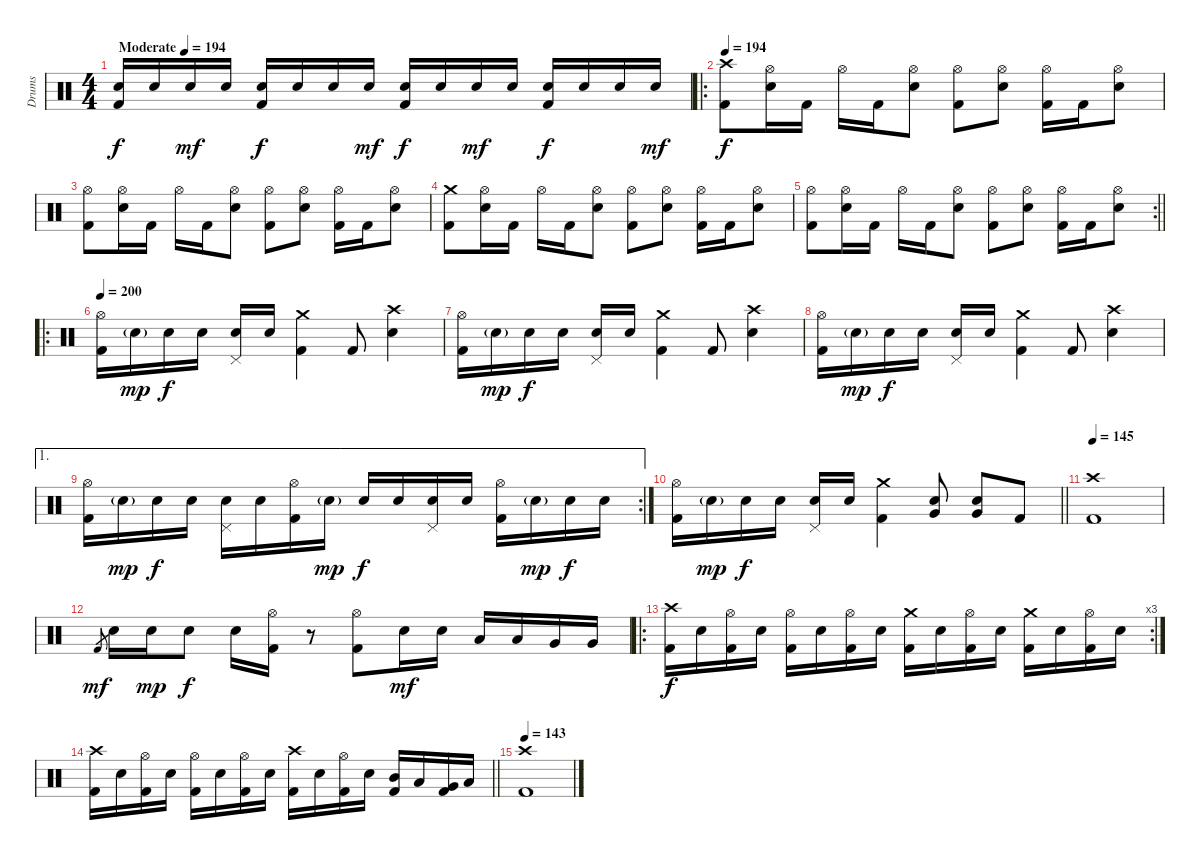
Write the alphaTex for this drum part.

\track ("Drums" "Drums") {instrument percussion}
\staff {score}
\articulation defaults
\ts (4 4)
\tempo (194 "Moderate")
\tempo 230
\tempo (194 "Moderate")
\clef neutral
\ks c
("Electric Snare (hit)" "Kick (hit) 2").16{dy f} "Electric Snare (hit)".16 "Electric Snare (hit)".16{dy mf} "Electric Snare (hit)".16 ("Electric Snare (hit)" "Kick (hit) 2").16{dy f} "Electric Snare (hit)".16 "Electric Snare (hit)".16 "Electric Snare (hit)".16{dy mf} ("Electric Snare (hit)" "Kick (hit) 2").16{dy f} "Electric Snare (hit)".16 "Electric Snare (hit)".16{dy mf} "Electric Snare (hit)".16 ("Electric Snare (hit)" "Kick (hit) 2").16{dy f} "Electric Snare (hit)".16 "Electric Snare (hit)".16 "Electric Snare (hit)".16{dy mf} |
\ro
\tempo 194
("Crash high (hit)" "Kick (hit) 2").8{dy f} ("Hi-Hat (open)" "Electric Snare (hit)").16 "Kick (hit) 2".16 "Hi-Hat (open)".16 "Kick (hit) 2".16 ("Hi-Hat (open)" "Electric Snare (hit)").8 ("Hi-Hat (open)" "Kick (hit) 2").8 ("Hi-Hat (open)" "Electric Snare (hit)").8 ("Hi-Hat (open)" "Kick (hit) 2").16 "Kick (hit) 2".16 ("Hi-Hat (open)" "Electric Snare (hit)").8 |
("Hi-Hat (open)" "Kick (hit) 2").8 ("Hi-Hat (open)" "Electric Snare (hit)").16 "Kick (hit) 2".16 "Hi-Hat (open)".16 "Kick (hit) 2".16 ("Hi-Hat (open)" "Electric Snare (hit)").8 ("Hi-Hat (open)" "Kick (hit) 2").8 ("Hi-Hat (open)" "Electric Snare (hit)").8 ("Hi-Hat (open)" "Kick (hit) 2").16 "Kick (hit) 2".16 ("Hi-Hat (open)" "Electric Snare (hit)").8 |
("Crash medium (hit)" "Kick (hit) 2").8 ("Hi-Hat (open)" "Electric Snare (hit)").16 "Kick (hit) 2".16 "Hi-Hat (open)".16 "Kick (hit) 2".16 ("Hi-Hat (open)" "Electric Snare (hit)").8 ("Hi-Hat (open)" "Kick (hit) 2").8 ("Hi-Hat (open)" "Electric Snare (hit)").8 ("Hi-Hat (open)" "Kick (hit) 2").16 "Kick (hit) 2".16 ("Hi-Hat (open)" "Electric Snare (hit)").8 |
\rc 2
\barLineRight lightlight
("Hi-Hat (open)" "Kick (hit) 2").8 ("Hi-Hat (open)" "Electric Snare (hit)").16 "Kick (hit) 2".16 "Hi-Hat (open)".16 "Kick (hit) 2".16 ("Hi-Hat (open)" "Electric Snare (hit)").8 ("Hi-Hat (open)" "Kick (hit) 2").8 ("Hi-Hat (open)" "Electric Snare (hit)").8 ("Hi-Hat (open)" "Kick (hit) 2").16 "Kick (hit) 2".16 ("Hi-Hat (open)" "Electric Snare (hit)").8 |
\ro
\section ("" "")
\tempo 200
("Hi-Hat (open)" "Kick (hit) 2").16 "Electric Snare (hit)"{g}.16{dy mp} "Electric Snare (hit)".16{dy f} "Electric Snare (hit)".16 ("Pedal Hi-Hat (hit)" "Electric Snare (hit)").16 "Electric Snare (hit)".16 ("Crash medium (hit)" "Kick (hit) 2").4 "Kick (hit) 2".8 ("Crash high (hit)" "Electric Snare (hit)").4 |
("Hi-Hat (open)" "Kick (hit) 2").16 "Electric Snare (hit)"{g}.16{dy mp} "Electric Snare (hit)".16{dy f} "Electric Snare (hit)".16 ("Pedal Hi-Hat (hit)" "Electric Snare (hit)").16 "Electric Snare (hit)".16 ("Crash medium (hit)" "Kick (hit) 2").4 "Kick (hit) 2".8 ("Crash high (hit)" "Electric Snare (hit)").4 |
("Hi-Hat (open)" "Kick (hit) 2").16 "Electric Snare (hit)"{g}.16{dy mp} "Electric Snare (hit)".16{dy f} "Electric Snare (hit)".16 ("Pedal Hi-Hat (hit)" "Electric Snare (hit)").16 "Electric Snare (hit)".16 ("Crash medium (hit)" "Kick (hit) 2").4 "Kick (hit) 2".8 ("Crash high (hit)" "Electric Snare (hit)").4 |
\ae 1
\rc 2
("Hi-Hat (open)" "Kick (hit) 2").16 "Electric Snare (hit)"{g}.16{dy mp} "Electric Snare (hit)".16{dy f} "Electric Snare (hit)".16 ("Pedal Hi-Hat (hit)" "Electric Snare (hit)").16 "Electric Snare (hit)".16 ("Hi-Hat (open)" "Kick (hit) 2").16 "Electric Snare (hit)"{g}.16{dy mp} "Electric Snare (hit)".16{dy f} "Electric Snare (hit)".16 ("Pedal Hi-Hat (hit)" "Electric Snare (hit)").16 "Electric Snare (hit)".16 ("Hi-Hat (open)" "Kick (hit) 2").16 "Electric Snare (hit)"{g}.16{dy mp} "Electric Snare (hit)".16{dy f} "Electric Snare (hit)".16 |
\barLineRight lightlight
("Hi-Hat (open)" "Kick (hit) 2").16 "Electric Snare (hit)"{g}.16{dy mp} "Electric Snare (hit)".16{dy f} "Electric Snare (hit)".16 ("Pedal Hi-Hat (hit)" "Electric Snare (hit)").16 "Electric Snare (hit)".16 ("Crash medium (hit)" "Kick (hit) 2").4 ("Electric Snare (hit)" "Very Low Tom (hit)").8 ("Electric Snare (hit)" "Very Low Tom (hit)").8 "Kick (hit) 2".8 |
\section ("" "")
\tempo 145
("Crash high (hit)" "Kick (hit) 2").1 |
"Kick (hit) 2".8{gr dy mf} "Electric Snare (hit)".16 "Electric Snare (hit)".16{dy mp} "Electric Snare (hit)".8{dy f} "Electric Snare (hit)".16 ("Hi-Hat (open)" "Kick (hit) 2").16 r.8 ("Hi-Hat (open)" "Kick (hit) 2").8 "Electric Snare (hit)".16{dy mf} "Electric Snare (hit)".16 "Low Tom (hit)".16 "Low Tom (hit)".16 "Very Low Tom (hit)".16 "Very Low Tom (hit)".16 |
\ro
\rc 3
("Crash high (hit)" "Kick (hit) 2").16{dy f} "Electric Snare (hit)".16 ("Hi-Hat (open)" "Kick (hit) 2").16 "Electric Snare (hit)".16 ("Hi-Hat (open)" "Kick (hit) 2").16 "Electric Snare (hit)".16 ("Hi-Hat (open)" "Kick (hit) 2").16 "Electric Snare (hit)".16 ("Crash medium (hit)" "Kick (hit) 2").16 "Electric Snare (hit)".16 ("Hi-Hat (open)" "Kick (hit) 2").16 "Electric Snare (hit)".16 ("Crash medium (hit)" "Kick (hit) 2").16 "Electric Snare (hit)".16 ("Hi-Hat (open)" "Kick (hit) 2").16 "Electric Snare (hit)".16 |
\barLineRight lightlight
("Crash high (hit)" "Kick (hit) 2").16 "Electric Snare (hit)".16 ("Hi-Hat (open)" "Kick (hit) 2").16 "Electric Snare (hit)".16 ("Hi-Hat (open)" "Kick (hit) 2").16 "Electric Snare (hit)".16 ("Hi-Hat (open)" "Kick (hit) 2").16 "Electric Snare (hit)".16 ("Crash high (hit)" "Kick (hit) 2").16 "Electric Snare (hit)".16 ("Hi-Hat (open)" "Kick (hit) 2").16 "Electric Snare (hit)".16 ("Mid Tom (hit)" "Kick (hit) 2").16 "Low Tom (hit)".16 ("Very Low Tom (hit)" "Kick (hit) 2").16 "Low Floor Tom (hit)".16 |
\section ("" "")
\tempo 143
("Crash high (hit)" "Kick (hit) 2").1
